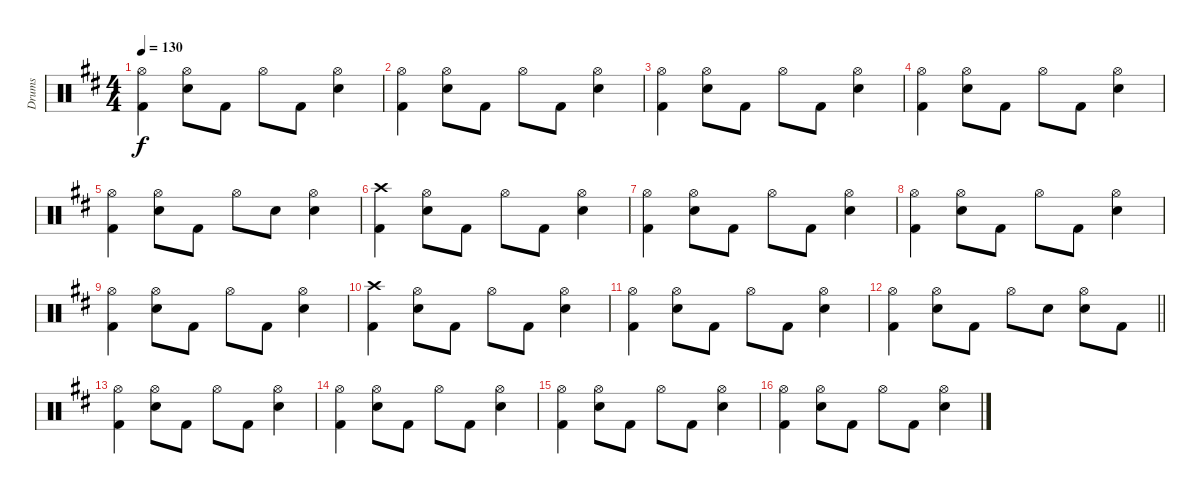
\track ("Drums" "Drums") {instrument percussion}
\staff {score}
\articulation defaults
\ts (4 4)
\tempo 130
\clef neutral
\ks d
("Kick (hit) 2" "Hi-Hat (open)").4{dy f} ("Hi-Hat (open)" "Electric Snare (hit)").8 "Kick (hit) 2".8 "Hi-Hat (open)".8 "Kick (hit) 2".8 ("Electric Snare (hit)" "Hi-Hat (open)").4 |
("Kick (hit) 2" "Hi-Hat (open)").4 ("Hi-Hat (open)" "Electric Snare (hit)").8 "Kick (hit) 2".8 "Hi-Hat (open)".8 "Kick (hit) 2".8 ("Electric Snare (hit)" "Hi-Hat (open)").4 |
("Kick (hit) 2" "Hi-Hat (open)").4 ("Hi-Hat (open)" "Electric Snare (hit)").8 "Kick (hit) 2".8 "Hi-Hat (open)".8 "Kick (hit) 2".8 ("Electric Snare (hit)" "Hi-Hat (open)").4 |
("Kick (hit) 2" "Hi-Hat (open)").4 ("Hi-Hat (open)" "Electric Snare (hit)").8 "Kick (hit) 2".8 "Hi-Hat (open)".8 "Kick (hit) 2".8 ("Electric Snare (hit)" "Hi-Hat (open)").4 |
("Kick (hit) 2" "Hi-Hat (open)").4 ("Hi-Hat (open)" "Electric Snare (hit)").8 "Kick (hit) 2".8 "Hi-Hat (open)".8 "Electric Snare (hit)".8 ("Electric Snare (hit)" "Hi-Hat (open)").4 |
("Kick (hit) 2" "Crash high (hit)").4 ("Hi-Hat (open)" "Electric Snare (hit)").8 "Kick (hit) 2".8 "Hi-Hat (open)".8 "Kick (hit) 2".8 ("Electric Snare (hit)" "Hi-Hat (open)").4 |
("Kick (hit) 2" "Hi-Hat (open)").4 ("Hi-Hat (open)" "Electric Snare (hit)").8 "Kick (hit) 2".8 "Hi-Hat (open)".8 "Kick (hit) 2".8 ("Electric Snare (hit)" "Hi-Hat (open)").4 |
("Kick (hit) 2" "Hi-Hat (open)").4 ("Hi-Hat (open)" "Electric Snare (hit)").8 "Kick (hit) 2".8 "Hi-Hat (open)".8 "Kick (hit) 2".8 ("Electric Snare (hit)" "Hi-Hat (open)").4 |
("Kick (hit) 2" "Hi-Hat (open)").4 ("Hi-Hat (open)" "Electric Snare (hit)").8 "Kick (hit) 2".8 "Hi-Hat (open)".8 "Kick (hit) 2".8 ("Electric Snare (hit)" "Hi-Hat (open)").4 |
("Kick (hit) 2" "Crash high (hit)").4 ("Hi-Hat (open)" "Electric Snare (hit)").8 "Kick (hit) 2".8 "Hi-Hat (open)".8 "Kick (hit) 2".8 ("Electric Snare (hit)" "Hi-Hat (open)").4 |
("Kick (hit) 2" "Hi-Hat (open)").4 ("Hi-Hat (open)" "Electric Snare (hit)").8 "Kick (hit) 2".8 "Hi-Hat (open)".8 "Kick (hit) 2".8 ("Electric Snare (hit)" "Hi-Hat (open)").4 |
\barLineRight lightlight
("Kick (hit) 2" "Hi-Hat (open)").4 ("Hi-Hat (open)" "Electric Snare (hit)").8 "Kick (hit) 2".8 "Hi-Hat (open)".8 "Electric Snare (hit)".8 ("Electric Snare (hit)" "Hi-Hat (open)").8 "Kick (hit) 2".8 |
("Kick (hit) 2" "Hi-Hat (open)").4 ("Hi-Hat (open)" "Electric Snare (hit)").8 "Kick (hit) 2".8 "Hi-Hat (open)".8 "Kick (hit) 2".8 ("Electric Snare (hit)" "Hi-Hat (open)").4 |
("Kick (hit) 2" "Hi-Hat (open)").4 ("Hi-Hat (open)" "Electric Snare (hit)").8 "Kick (hit) 2".8 "Hi-Hat (open)".8 "Kick (hit) 2".8 ("Electric Snare (hit)" "Hi-Hat (open)").4 |
("Kick (hit) 2" "Hi-Hat (open)").4 ("Hi-Hat (open)" "Electric Snare (hit)").8 "Kick (hit) 2".8 "Hi-Hat (open)".8 "Kick (hit) 2".8 ("Electric Snare (hit)" "Hi-Hat (open)").4 |
("Kick (hit) 2" "Hi-Hat (open)").4 ("Hi-Hat (open)" "Electric Snare (hit)").8 "Kick (hit) 2".8 "Hi-Hat (open)".8 "Kick (hit) 2".8 ("Electric Snare (hit)" "Hi-Hat (open)").4
